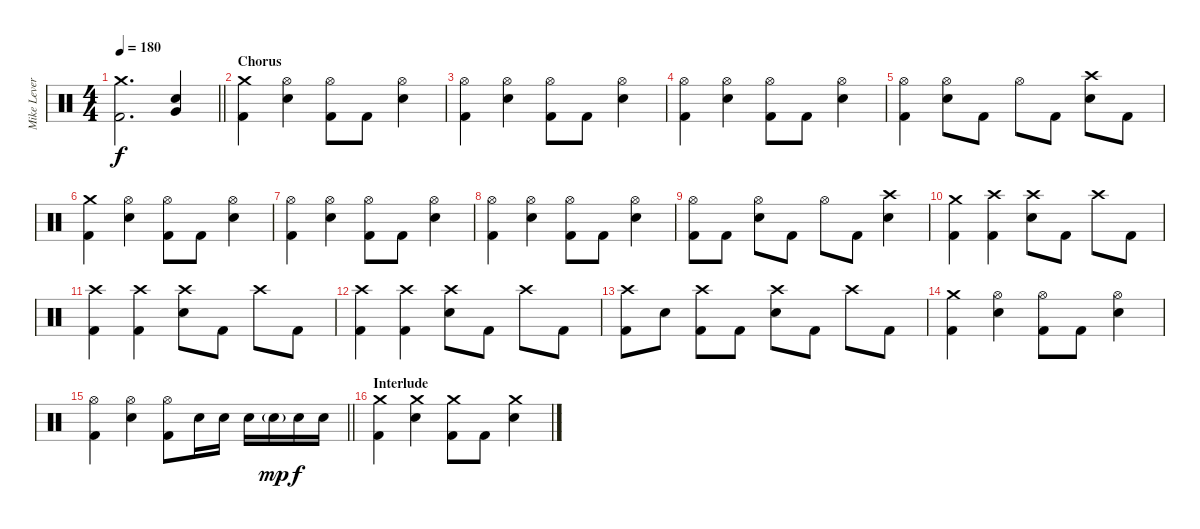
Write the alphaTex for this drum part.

\track ("Mike Leverence - Drums" "Mike Lever") {instrument percussion}
\staff {score}
\articulation defaults
\ts (4 4)
\tempo 180
\clef neutral
\barLineRight lightlight
\ks c
("Crash medium (hit)" "Kick (hit) 2").2{d dy f} ("Very Low Tom (hit)" "Electric Snare (hit)").4 |
\section ("" "Chorus")
("Crash medium (hit)" "Kick (hit) 2").4 ("Hi-Hat (open)" "Electric Snare (hit)").4 ("Hi-Hat (open)" "Kick (hit) 2").8 "Kick (hit) 2".8 ("Hi-Hat (open)" "Electric Snare (hit)").4 |
("Hi-Hat (open)" "Kick (hit) 2").4 ("Hi-Hat (open)" "Electric Snare (hit)").4 ("Hi-Hat (open)" "Kick (hit) 2").8 "Kick (hit) 2".8 ("Hi-Hat (open)" "Electric Snare (hit)").4 |
("Hi-Hat (open)" "Kick (hit) 2").4 ("Hi-Hat (open)" "Electric Snare (hit)").4 ("Hi-Hat (open)" "Kick (hit) 2").8 "Kick (hit) 2".8 ("Hi-Hat (open)" "Electric Snare (hit)").4 |
("Hi-Hat (open)" "Kick (hit) 2").4 ("Hi-Hat (open)" "Electric Snare (hit)").8 "Kick (hit) 2".8 "Hi-Hat (open)".8 "Kick (hit) 2".8 ("Crash high (hit)" "Electric Snare (hit)").8 "Kick (hit) 2".8 |
("Crash medium (hit)" "Kick (hit) 2").4 ("Hi-Hat (open)" "Electric Snare (hit)").4 ("Hi-Hat (open)" "Kick (hit) 2").8 "Kick (hit) 2".8 ("Hi-Hat (open)" "Electric Snare (hit)").4 |
("Hi-Hat (open)" "Kick (hit) 2").4 ("Hi-Hat (open)" "Electric Snare (hit)").4 ("Hi-Hat (open)" "Kick (hit) 2").8 "Kick (hit) 2".8 ("Hi-Hat (open)" "Electric Snare (hit)").4 |
("Hi-Hat (open)" "Kick (hit) 2").4 ("Hi-Hat (open)" "Electric Snare (hit)").4 ("Hi-Hat (open)" "Kick (hit) 2").8 "Kick (hit) 2".8 ("Hi-Hat (open)" "Electric Snare (hit)").4 |
("Hi-Hat (open)" "Kick (hit) 2").8 "Kick (hit) 2".8 ("Hi-Hat (open)" "Electric Snare (hit)").8 "Kick (hit) 2".8 "Hi-Hat (open)".8 "Kick (hit) 2".8 ("Crash high (hit)" "Electric Snare (hit)").4 |
("Crash medium (hit)" "Kick (hit) 2").4 ("Crash high (hit)" "Kick (hit) 2").4 ("Crash high (hit)" "Electric Snare (hit)").8 "Kick (hit) 2".8 "Crash high (hit)".8 "Kick (hit) 2".8 |
("Crash high (hit)" "Kick (hit) 2").4 ("Crash high (hit)" "Kick (hit) 2").4 ("Crash high (hit)" "Electric Snare (hit)").8 "Kick (hit) 2".8 "Crash high (hit)".8 "Kick (hit) 2".8 |
("Crash high (hit)" "Kick (hit) 2").4 ("Crash high (hit)" "Kick (hit) 2").4 ("Crash high (hit)" "Electric Snare (hit)").8 "Kick (hit) 2".8 "Crash high (hit)".8 "Kick (hit) 2".8 |
("Crash high (hit)" "Kick (hit) 2").8 "Electric Snare (hit)".8 ("Crash high (hit)" "Kick (hit) 2").8 "Kick (hit) 2".8 ("Crash high (hit)" "Electric Snare (hit)").8 "Kick (hit) 2".8 "Crash high (hit)".8 "Kick (hit) 2".8 |
("Crash medium (hit)" "Kick (hit) 2").4 ("Hi-Hat (open)" "Electric Snare (hit)").4 ("Hi-Hat (open)" "Kick (hit) 2").8 "Kick (hit) 2".8 ("Hi-Hat (open)" "Electric Snare (hit)").4 |
\barLineRight lightlight
("Hi-Hat (open)" "Kick (hit) 2").4 ("Hi-Hat (open)" "Electric Snare (hit)").4 ("Hi-Hat (open)" "Kick (hit) 2").8 "Electric Snare (hit)".16 "Electric Snare (hit)".16 "Electric Snare (hit)".16 "Electric Snare (hit)"{g}.16{dy mp} "Electric Snare (hit)".16{dy f} "Electric Snare (hit)".16 |
\section ("" "Interlude")
("Crash medium (hit)" "Kick (hit) 2").4 ("Crash medium (hit)" "Electric Snare (hit)").4 ("Crash medium (hit)" "Kick (hit) 2").8 "Kick (hit) 2".8 ("Crash medium (hit)" "Electric Snare (hit)").4
